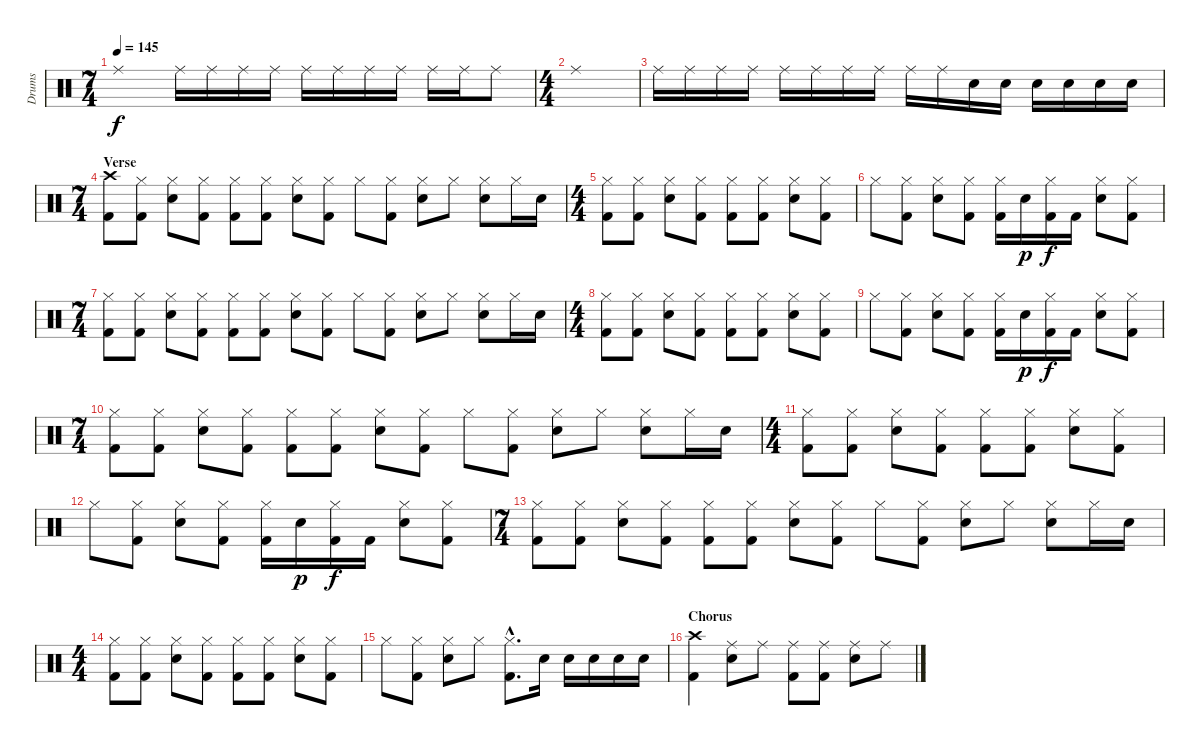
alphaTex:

\track ("Drums" "Drums") {instrument percussion}
\staff {score}
\articulation defaults
\ts (7 4)
\tempo 145
\clef neutral
\ks c "Ride (middle)".1{dy f} "Ride (middle)".16 "Ride (middle)".16 "Ride (middle)".16 "Ride (middle)".16 "Ride (middle)".16 "Ride (middle)".16 "Ride (middle)".16 "Ride (middle)".16 "Ride (middle)".16 "Ride (middle)".16 "Ride (middle)".8
|
\ts (4 4)
"Ride (middle)".1 |
"Ride (middle)".16 "Ride (middle)".16 "Ride (middle)".16 "Ride (middle)".16 "Ride (middle)".16 "Ride (middle)".16 "Ride (middle)".16 "Ride (middle)".16 "Ride (middle)".16 "Ride (middle)".16 "Electric Snare (hit)".16 "Electric Snare (hit)".16 "Electric Snare (hit)".16 "Electric Snare (hit)".16 "Electric Snare (hit)".16 "Electric Snare (hit)".16 |
\ts (7 4)
\section ("" "Verse")
("Crash high (hit)" "Kick (hit) 2").8 ("Hi-Hat (closed)" "Kick (hit) 2").8 ("Hi-Hat (closed)" "Electric Snare (hit)").8 ("Hi-Hat (closed)" "Kick (hit) 2").8 ("Hi-Hat (closed)" "Kick (hit) 2").8 ("Hi-Hat (closed)" "Kick (hit) 2").8 ("Hi-Hat (closed)" "Electric Snare (hit)").8 ("Hi-Hat (closed)" "Kick (hit) 2").8 "Hi-Hat (closed)".8 ("Hi-Hat (closed)" "Kick (hit) 2").8 ("Hi-Hat (closed)" "Electric Snare (hit)").8 "Hi-Hat (closed)".8 ("Hi-Hat (closed)" "Electric Snare (hit)").8 "Hi-Hat (closed)".16 "Electric Snare (hit)".16 |
\ts (4 4)
("Hi-Hat (closed)" "Kick (hit) 2").8 ("Hi-Hat (closed)" "Kick (hit) 2").8 ("Hi-Hat (closed)" "Electric Snare (hit)").8 ("Hi-Hat (closed)" "Kick (hit) 2").8 ("Hi-Hat (closed)" "Kick (hit) 2").8 ("Hi-Hat (closed)" "Kick (hit) 2").8 ("Hi-Hat (closed)" "Electric Snare (hit)").8 ("Hi-Hat (closed)" "Kick (hit) 2").8 |
"Hi-Hat (closed)".8 ("Hi-Hat (closed)" "Kick (hit) 2").8 ("Hi-Hat (closed)" "Electric Snare (hit)").8 ("Hi-Hat (closed)" "Kick (hit) 2").8 ("Hi-Hat (closed)" "Kick (hit) 2").16 "Electric Snare (hit)".16{dy p} ("Hi-Hat (closed)" "Kick (hit) 2").16{dy f} "Kick (hit) 2".16 ("Hi-Hat (closed)" "Electric Snare (hit)").8 ("Hi-Hat (closed)" "Kick (hit) 2").8 |
\ts (7 4)
("Hi-Hat (closed)" "Kick (hit) 2").8 ("Hi-Hat (closed)" "Kick (hit) 2").8 ("Hi-Hat (closed)" "Electric Snare (hit)").8 ("Hi-Hat (closed)" "Kick (hit) 2").8 ("Hi-Hat (closed)" "Kick (hit) 2").8 ("Hi-Hat (closed)" "Kick (hit) 2").8 ("Hi-Hat (closed)" "Electric Snare (hit)").8 ("Hi-Hat (closed)" "Kick (hit) 2").8 "Hi-Hat (closed)".8 ("Hi-Hat (closed)" "Kick (hit) 2").8 ("Hi-Hat (closed)" "Electric Snare (hit)").8 "Hi-Hat (closed)".8 ("Hi-Hat (closed)" "Electric Snare (hit)").8 "Hi-Hat (closed)".16 "Electric Snare (hit)".16 |
\ts (4 4)
("Hi-Hat (closed)" "Kick (hit) 2").8 ("Hi-Hat (closed)" "Kick (hit) 2").8 ("Hi-Hat (closed)" "Electric Snare (hit)").8 ("Hi-Hat (closed)" "Kick (hit) 2").8 ("Hi-Hat (closed)" "Kick (hit) 2").8 ("Hi-Hat (closed)" "Kick (hit) 2").8 ("Hi-Hat (closed)" "Electric Snare (hit)").8 ("Hi-Hat (closed)" "Kick (hit) 2").8 |
"Hi-Hat (closed)".8 ("Hi-Hat (closed)" "Kick (hit) 2").8 ("Hi-Hat (closed)" "Electric Snare (hit)").8 ("Hi-Hat (closed)" "Kick (hit) 2").8 ("Hi-Hat (closed)" "Kick (hit) 2").16 "Electric Snare (hit)".16{dy p} ("Hi-Hat (closed)" "Kick (hit) 2").16{dy f} "Kick (hit) 2".16 ("Hi-Hat (closed)" "Electric Snare (hit)").8 ("Hi-Hat (closed)" "Kick (hit) 2").8 |
\ts (7 4)
("Hi-Hat (closed)" "Kick (hit) 2").8 ("Hi-Hat (closed)" "Kick (hit) 2").8 ("Hi-Hat (closed)" "Electric Snare (hit)").8 ("Hi-Hat (closed)" "Kick (hit) 2").8 ("Hi-Hat (closed)" "Kick (hit) 2").8 ("Hi-Hat (closed)" "Kick (hit) 2").8 ("Hi-Hat (closed)" "Electric Snare (hit)").8 ("Hi-Hat (closed)" "Kick (hit) 2").8 "Hi-Hat (closed)".8 ("Hi-Hat (closed)" "Kick (hit) 2").8 ("Hi-Hat (closed)" "Electric Snare (hit)").8 "Hi-Hat (closed)".8 ("Hi-Hat (closed)" "Electric Snare (hit)").8 "Hi-Hat (closed)".16 "Electric Snare (hit)".16 |
\ts (4 4)
("Hi-Hat (closed)" "Kick (hit) 2").8 ("Hi-Hat (closed)" "Kick (hit) 2").8 ("Hi-Hat (closed)" "Electric Snare (hit)").8 ("Hi-Hat (closed)" "Kick (hit) 2").8 ("Hi-Hat (closed)" "Kick (hit) 2").8 ("Hi-Hat (closed)" "Kick (hit) 2").8 ("Hi-Hat (closed)" "Electric Snare (hit)").8 ("Hi-Hat (closed)" "Kick (hit) 2").8 |
"Hi-Hat (closed)".8 ("Hi-Hat (closed)" "Kick (hit) 2").8 ("Hi-Hat (closed)" "Electric Snare (hit)").8 ("Hi-Hat (closed)" "Kick (hit) 2").8 ("Hi-Hat (closed)" "Kick (hit) 2").16 "Electric Snare (hit)".16{dy p} ("Hi-Hat (closed)" "Kick (hit) 2").16{dy f} "Kick (hit) 2".16 ("Hi-Hat (closed)" "Electric Snare (hit)").8 ("Hi-Hat (closed)" "Kick (hit) 2").8 |
\ts (7 4)
("Hi-Hat (closed)" "Kick (hit) 2").8 ("Hi-Hat (closed)" "Kick (hit) 2").8 ("Hi-Hat (closed)" "Electric Snare (hit)").8 ("Hi-Hat (closed)" "Kick (hit) 2").8 ("Hi-Hat (closed)" "Kick (hit) 2").8 ("Hi-Hat (closed)" "Kick (hit) 2").8 ("Hi-Hat (closed)" "Electric Snare (hit)").8 ("Hi-Hat (closed)" "Kick (hit) 2").8 "Hi-Hat (closed)".8 ("Hi-Hat (closed)" "Kick (hit) 2").8 ("Hi-Hat (closed)" "Electric Snare (hit)").8 "Hi-Hat (closed)".8 ("Hi-Hat (closed)" "Electric Snare (hit)").8 "Hi-Hat (closed)".16 "Electric Snare (hit)".16 |
\ts (4 4)
("Hi-Hat (closed)" "Kick (hit) 2").8 ("Hi-Hat (closed)" "Kick (hit) 2").8 ("Hi-Hat (closed)" "Electric Snare (hit)").8 ("Hi-Hat (closed)" "Kick (hit) 2").8 ("Hi-Hat (closed)" "Kick (hit) 2").8 ("Hi-Hat (closed)" "Kick (hit) 2").8 ("Hi-Hat (closed)" "Electric Snare (hit)").8 ("Hi-Hat (closed)" "Kick (hit) 2").8 |
"Hi-Hat (closed)".8 ("Hi-Hat (closed)" "Kick (hit) 2").8 ("Hi-Hat (closed)" "Electric Snare (hit)").8 "Hi-Hat (closed)".8 ("Hi-Hat (closed)"{hac} "Kick (hit) 2"{hac}).8{d} "Electric Snare (hit)".16 "Electric Snare (hit)".16 "Electric Snare (hit)".16 "Electric Snare (hit)".16 "Electric Snare (hit)".16 |
\section ("" "Chorus")
("Crash high (hit)" "Kick (hit) 2").4 ("Ride (middle)" "Electric Snare (hit)").8 "Ride (middle)".8 ("Ride (middle)" "Kick (hit) 2").8 ("Ride (middle)" "Kick (hit) 2").8 ("Ride (middle)" "Electric Snare (hit)").8 "Ride (middle)".8
